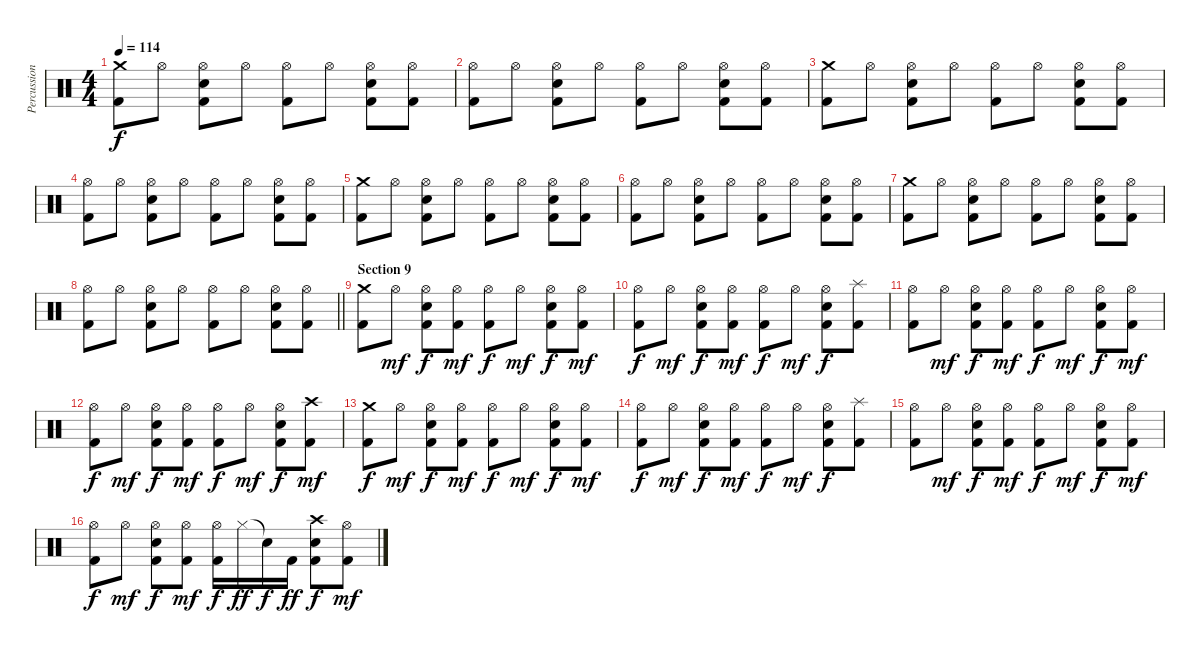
\track ("Percussion" "Percussion") {instrument percussion}
\staff {score}
\articulation defaults
\ts (4 4)
\tempo 114
\clef neutral
\ks c
("Crash medium (hit)" "Kick (hit) 2").8{dy f} "Hi-Hat (open)".8 ("Snare (hit) 2" "Hi-Hat (open)" "Kick (hit) 2").8 "Hi-Hat (open)".8 ("Hi-Hat (open)" "Kick (hit) 2").8 "Hi-Hat (open)".8 ("Snare (hit) 2" "Hi-Hat (open)" "Kick (hit) 2").8 ("Hi-Hat (open)" "Kick (hit) 2").8 |
("Hi-Hat (open)" "Kick (hit) 2").8 "Hi-Hat (open)".8 ("Snare (hit) 2" "Hi-Hat (open)" "Kick (hit) 2").8 "Hi-Hat (open)".8 ("Hi-Hat (open)" "Kick (hit) 2").8 "Hi-Hat (open)".8 ("Snare (hit) 2" "Hi-Hat (open)" "Kick (hit) 2").8 ("Hi-Hat (open)" "Kick (hit) 2").8 |
("Crash medium (hit)" "Kick (hit) 2").8 "Hi-Hat (open)".8 ("Snare (hit) 2" "Hi-Hat (open)" "Kick (hit) 2").8 "Hi-Hat (open)".8 ("Hi-Hat (open)" "Kick (hit) 2").8 "Hi-Hat (open)".8 ("Snare (hit) 2" "Hi-Hat (open)" "Kick (hit) 2").8 ("Hi-Hat (open)" "Kick (hit) 2").8 |
("Hi-Hat (open)" "Kick (hit) 2").8 "Hi-Hat (open)".8 ("Snare (hit) 2" "Hi-Hat (open)" "Kick (hit) 2").8 "Hi-Hat (open)".8 ("Hi-Hat (open)" "Kick (hit) 2").8 "Hi-Hat (open)".8 ("Snare (hit) 2" "Hi-Hat (open)" "Kick (hit) 2").8 ("Hi-Hat (open)" "Kick (hit) 2").8 |
("Crash medium (hit)" "Kick (hit) 2").8 "Hi-Hat (open)".8 ("Snare (hit) 2" "Hi-Hat (open)" "Kick (hit) 2").8 "Hi-Hat (open)".8 ("Hi-Hat (open)" "Kick (hit) 2").8 "Hi-Hat (open)".8 ("Snare (hit) 2" "Hi-Hat (open)" "Kick (hit) 2").8 ("Hi-Hat (open)" "Kick (hit) 2").8 |
("Hi-Hat (open)" "Kick (hit) 2").8 "Hi-Hat (open)".8 ("Snare (hit) 2" "Hi-Hat (open)" "Kick (hit) 2").8 "Hi-Hat (open)".8 ("Hi-Hat (open)" "Kick (hit) 2").8 "Hi-Hat (open)".8 ("Snare (hit) 2" "Hi-Hat (open)" "Kick (hit) 2").8 ("Hi-Hat (open)" "Kick (hit) 2").8 |
("Crash medium (hit)" "Kick (hit) 2").8 "Hi-Hat (open)".8 ("Snare (hit) 2" "Hi-Hat (open)" "Kick (hit) 2").8 "Hi-Hat (open)".8 ("Hi-Hat (open)" "Kick (hit) 2").8 "Hi-Hat (open)".8 ("Snare (hit) 2" "Hi-Hat (open)" "Kick (hit) 2").8 ("Hi-Hat (open)" "Kick (hit) 2").8 |
\barLineRight lightlight
("Hi-Hat (open)" "Kick (hit) 2").8 "Hi-Hat (open)".8 ("Snare (hit) 2" "Hi-Hat (open)" "Kick (hit) 2").8 "Hi-Hat (open)".8 ("Hi-Hat (open)" "Kick (hit) 2").8 "Hi-Hat (open)".8 ("Snare (hit) 2" "Hi-Hat (open)" "Kick (hit) 2").8 ("Hi-Hat (open)" "Kick (hit) 2").8 |
\section ("" "Section 9")
("Crash medium (hit)" "Kick (hit) 2").8 "Hi-Hat (open)".8{dy mf} ("Snare (hit) 2" "Hi-Hat (open)" "Kick (hit) 2").8{dy f} ("Hi-Hat (open)" "Kick (hit) 2").8{dy mf} ("Hi-Hat (open)" "Kick (hit) 2").8{dy f} "Hi-Hat (open)".8{dy mf} ("Snare (hit) 2" "Hi-Hat (open)" "Kick (hit) 2").8{dy f} ("Hi-Hat (open)" "Kick (hit) 2").8{dy mf} |
("Hi-Hat (open)" "Kick (hit) 2").8{dy f} "Hi-Hat (open)".8{dy mf} ("Snare (hit) 2" "Hi-Hat (open)" "Kick (hit) 2").8{dy f} ("Hi-Hat (open)" "Kick (hit) 2").8{dy mf} ("Hi-Hat (open)" "Kick (hit) 2").8{dy f} "Hi-Hat (open)".8{dy mf} ("Snare (hit) 2" "Hi-Hat (open)" "Kick (hit) 2").8{dy f} ("Splash (hit)" "Kick (hit) 2").8 |
("Hi-Hat (open)" "Kick (hit) 2").8 "Hi-Hat (open)".8{dy mf} ("Snare (hit) 2" "Hi-Hat (open)" "Kick (hit) 2").8{dy f} ("Hi-Hat (open)" "Kick (hit) 2").8{dy mf} ("Hi-Hat (open)" "Kick (hit) 2").8{dy f} "Hi-Hat (open)".8{dy mf} ("Snare (hit) 2" "Hi-Hat (open)" "Kick (hit) 2").8{dy f} ("Hi-Hat (open)" "Kick (hit) 2").8{dy mf} |
("Hi-Hat (open)" "Kick (hit) 2").8{dy f} "Hi-Hat (open)".8{dy mf} ("Snare (hit) 2" "Hi-Hat (open)" "Kick (hit) 2").8{dy f} ("Hi-Hat (open)" "Kick (hit) 2").8{dy mf} ("Hi-Hat (open)" "Kick (hit) 2").8{dy f} "Hi-Hat (open)".8{dy mf} ("Snare (hit) 2" "Hi-Hat (open)" "Kick (hit) 2").8{dy f} ("Crash high (hit)" "Kick (hit) 2").8{dy mf} |
("Crash medium (hit)" "Kick (hit) 2").8{dy f} "Hi-Hat (open)".8{dy mf} ("Snare (hit) 2" "Hi-Hat (open)" "Kick (hit) 2").8{dy f} ("Hi-Hat (open)" "Kick (hit) 2").8{dy mf} ("Hi-Hat (open)" "Kick (hit) 2").8{dy f} "Hi-Hat (open)".8{dy mf} ("Snare (hit) 2" "Hi-Hat (open)" "Kick (hit) 2").8{dy f} ("Hi-Hat (open)" "Kick (hit) 2").8{dy mf} |
("Hi-Hat (open)" "Kick (hit) 2").8{dy f} "Hi-Hat (open)".8{dy mf} ("Snare (hit) 2" "Hi-Hat (open)" "Kick (hit) 2").8{dy f} ("Hi-Hat (open)" "Kick (hit) 2").8{dy mf} ("Hi-Hat (open)" "Kick (hit) 2").8{dy f} "Hi-Hat (open)".8{dy mf} ("Snare (hit) 2" "Hi-Hat (open)" "Kick (hit) 2").8{dy f} ("Splash (hit)" "Kick (hit) 2").8 |
("Hi-Hat (open)" "Kick (hit) 2").8 "Hi-Hat (open)".8{dy mf} ("Snare (hit) 2" "Hi-Hat (open)" "Kick (hit) 2").8{dy f} ("Hi-Hat (open)" "Kick (hit) 2").8{dy mf} ("Hi-Hat (open)" "Kick (hit) 2").8{dy f} "Hi-Hat (open)".8{dy mf} ("Snare (hit) 2" "Hi-Hat (open)" "Kick (hit) 2").8{dy f} ("Hi-Hat (open)" "Kick (hit) 2").8{dy mf} |
("Hi-Hat (open)" "Kick (hit) 2").8{dy f} "Hi-Hat (open)".8{dy mf} ("Snare (hit) 2" "Hi-Hat (open)" "Kick (hit) 2").8{dy f} ("Hi-Hat (open)" "Kick (hit) 2").8{dy mf} ("Hi-Hat (open)" "Kick (hit) 2").16{dy f} "Hi-Hat (closed)".16{dy ff} "Snare (hit)"{t}.16{dy f} "Kick (hit) 2".16{dy ff} ("Crash high (hit)" "Snare (hit) 2" "Kick (hit) 2").8{dy f} ("Hi-Hat (open)" "Kick (hit) 2").8{dy mf}
